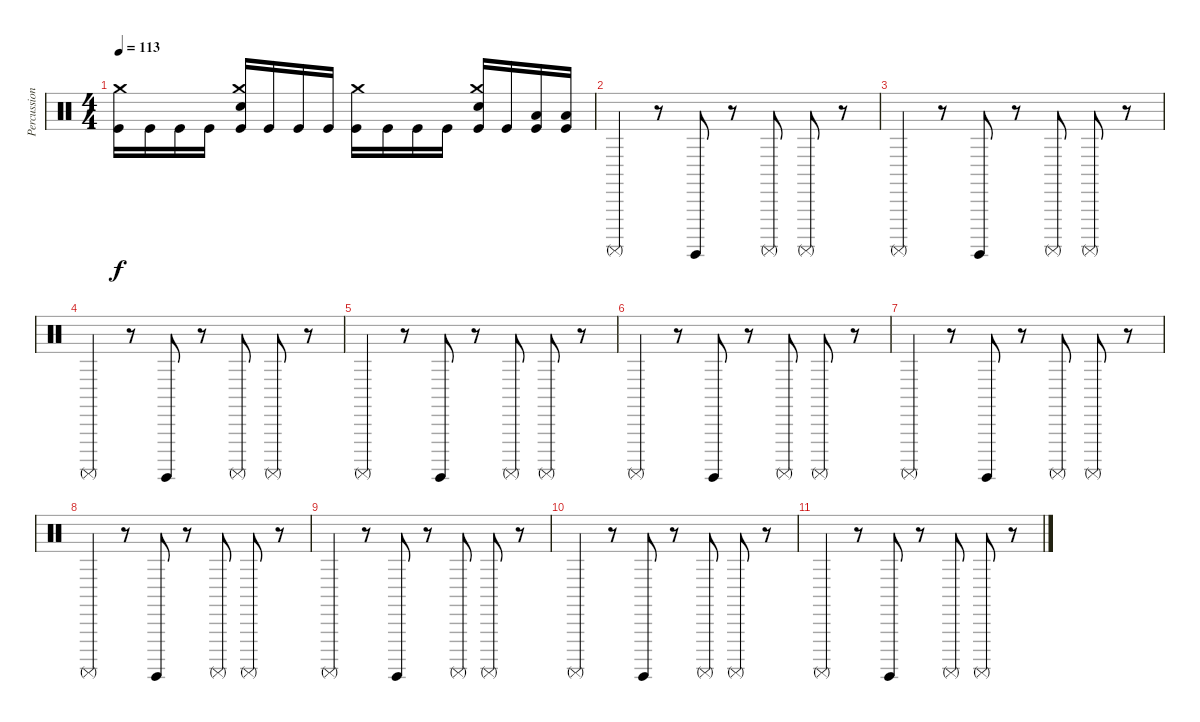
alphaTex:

\track ("Percussion" "Percussion") {instrument percussion}
\staff {score}
\articulation defaults
\ts (4 4)
\tempo 113
\clef neutral
\ks c
("Kick (hit)" "Crash medium (hit)").16{dy f} "Kick (hit)".16 "Kick (hit)".16 "Kick (hit)".16 ("Kick (hit)" "Crash medium (hit)" "Snare (hit) 2").16 "Kick (hit)".16 "Kick (hit)".16 "Kick (hit)".16 ("Kick (hit)" "Crash medium (hit)").16 "Kick (hit)".16 "Kick (hit)".16 "Kick (hit)".16 ("Kick (hit)" "Crash medium (hit)" "Snare (hit) 2").16 "Kick (hit)".16 ("Kick (hit)" "Low Floor Tom (hit)").16 ("Kick (hit)" "Low Floor Tom (hit)").16 |
"Surdo (mute)".4{volume 15} r.8 "Surdo (hit)".8 r.8 "Surdo (mute)".8 "Surdo (mute)".8 r.8 |
"Surdo (mute)".4 r.8 "Surdo (hit)".8 r.8 "Surdo (mute)".8 "Surdo (mute)".8 r.8 |
"Surdo (mute)".4 r.8 "Surdo (hit)".8 r.8 "Surdo (mute)".8 "Surdo (mute)".8 r.8 |
"Surdo (mute)".4 r.8 "Surdo (hit)".8 r.8 "Surdo (mute)".8 "Surdo (mute)".8 r.8 |
"Surdo (mute)".4 r.8 "Surdo (hit)".8 r.8 "Surdo (mute)".8 "Surdo (mute)".8 r.8 |
"Surdo (mute)".4 r.8 "Surdo (hit)".8 r.8 "Surdo (mute)".8 "Surdo (mute)".8 r.8 |
"Surdo (mute)".4 r.8 "Surdo (hit)".8 r.8 "Surdo (mute)".8 "Surdo (mute)".8 r.8 |
"Surdo (mute)".4 r.8 "Surdo (hit)".8 r.8 "Surdo (mute)".8 "Surdo (mute)".8 r.8 |
"Surdo (mute)".4 r.8 "Surdo (hit)".8 r.8 "Surdo (mute)".8 "Surdo (mute)".8 r.8 |
"Surdo (mute)".4 r.8 "Surdo (hit)".8 r.8 "Surdo (mute)".8 "Surdo (mute)".8 r.8
